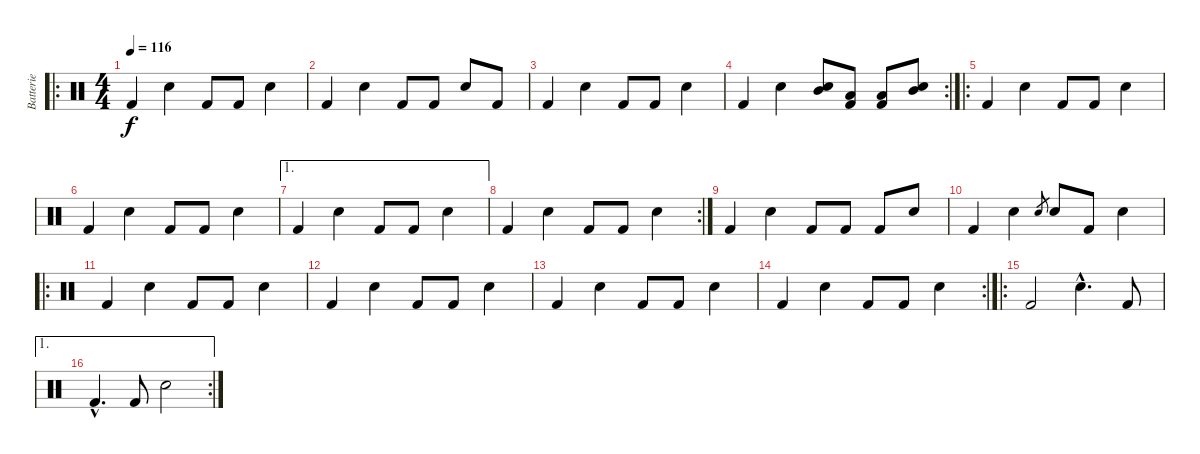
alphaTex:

\track ("Batterie" "Batterie") {instrument percussion}
\staff {score}
\articulation defaults
\ro
\ts (4 4)
\tempo 116
\clef neutral
\ks c "Kick (hit) 2".4{dy f} "Snare (hit) 2".4 "Kick (hit) 2".8 "Kick (hit) 2".8 "Snare (hit) 2".4
|
"Kick (hit) 2".4 "Snare (hit) 2".4 "Kick (hit) 2".8 "Kick (hit) 2".8 "Snare (hit) 2".8 "Kick (hit) 2".8 |
"Kick (hit) 2".4 "Snare (hit) 2".4 "Kick (hit) 2".8 "Kick (hit) 2".8 "Snare (hit) 2".4 |
\rc 2 "Kick (hit) 2".4 "Snare (hit) 2".4
("Mid Tom (hit)" "Snare (hit) 2").8 ("Low Tom (hit)" "Kick (hit) 2").8 ("Low Tom (hit)" "Kick (hit) 2").8 ("Mid Tom (hit)" "Snare (hit) 2").8 |
\ro "Kick (hit) 2".4 "Snare (hit) 2".4 "Kick (hit) 2".8 "Kick (hit) 2".8 "Snare (hit) 2".4
|
"Kick (hit) 2".4 "Snare (hit) 2".4 "Kick (hit) 2".8 "Kick (hit) 2".8 "Snare (hit) 2".4 |
\ae 1 "Kick (hit) 2".4 "Snare (hit) 2".4 "Kick (hit) 2".8 "Kick (hit) 2".8 "Snare (hit) 2".4
|
\rc 2 "Kick (hit) 2".4 "Snare (hit) 2".4 "Kick (hit) 2".8 "Kick (hit) 2".8 "Snare (hit) 2".4
|
"Kick (hit) 2".4 "Snare (hit) 2".4 "Kick (hit) 2".8 "Kick (hit) 2".8 "Kick (hit) 2".8 "Snare (hit) 2".8 |
"Kick (hit) 2".4 "Snare (hit) 2".4 "Snare (hit) 2".8{gr} "Snare (hit) 2".8 "Kick (hit) 2".8 "Snare (hit) 2".4 |
\ro "Kick (hit) 2".4 "Snare (hit) 2".4 "Kick (hit) 2".8 "Kick (hit) 2".8 "Snare (hit) 2".4
|
"Kick (hit) 2".4 "Snare (hit) 2".4 "Kick (hit) 2".8 "Kick (hit) 2".8 "Snare (hit) 2".4 |
"Kick (hit) 2".4 "Snare (hit) 2".4 "Kick (hit) 2".8 "Kick (hit) 2".8 "Snare (hit) 2".4 |
\rc 2 "Kick (hit) 2".4 "Snare (hit) 2".4 "Kick (hit) 2".8 "Kick (hit) 2".8 "Snare (hit) 2".4
|
\ro "Kick (hit) 2".2 "Snare (hit) 2"{hac}.4{d} "Kick (hit) 2".8
|
\ae 1
\rc 2 "Kick (hit) 2"{hac}.4{d} "Kick (hit) 2".8 "Snare (hit) 2".2
